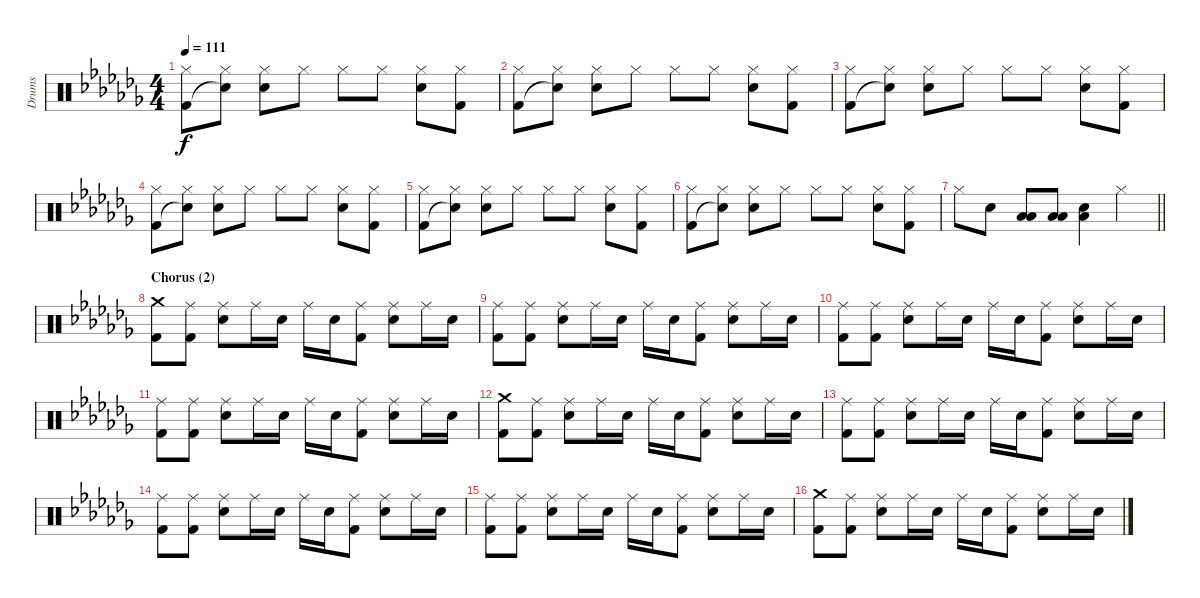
\track ("Drums" "Drums") {instrument percussion}
\staff {score}
\articulation defaults
\ts (4 4)
\tempo 111
\clef neutral
\ks abminor
("Hi-Hat (closed)" "Kick (hit) 2").8{dy f} ("Hi-Hat (closed)" "Snare (hit)"{t}).8 ("Hi-Hat (closed)" "Electric Snare (hit)").8 "Hi-Hat (closed)".8 "Hi-Hat (closed)".8 "Hi-Hat (closed)".8 ("Hi-Hat (closed)" "Electric Snare (hit)").8 ("Hi-Hat (closed)" "Kick (hit) 2").8 |
("Hi-Hat (closed)" "Kick (hit) 2").8 ("Hi-Hat (closed)" "Snare (hit)"{t}).8 ("Hi-Hat (closed)" "Electric Snare (hit)").8 "Hi-Hat (closed)".8 "Hi-Hat (closed)".8 "Hi-Hat (closed)".8 ("Hi-Hat (closed)" "Electric Snare (hit)").8 ("Hi-Hat (closed)" "Kick (hit) 2").8 |
("Hi-Hat (closed)" "Kick (hit) 2").8 ("Hi-Hat (closed)" "Snare (hit)"{t}).8 ("Hi-Hat (closed)" "Electric Snare (hit)").8 "Hi-Hat (closed)".8 "Hi-Hat (closed)".8 "Hi-Hat (closed)".8 ("Hi-Hat (closed)" "Electric Snare (hit)").8 ("Hi-Hat (closed)" "Kick (hit) 2").8 |
("Hi-Hat (closed)" "Kick (hit) 2").8 ("Hi-Hat (closed)" "Snare (hit)"{t}).8 ("Hi-Hat (closed)" "Electric Snare (hit)").8 "Hi-Hat (closed)".8 "Hi-Hat (closed)".8 "Hi-Hat (closed)".8 ("Hi-Hat (closed)" "Electric Snare (hit)").8 ("Hi-Hat (closed)" "Kick (hit) 2").8 |
("Hi-Hat (closed)" "Kick (hit) 2").8 ("Hi-Hat (closed)" "Snare (hit)"{t}).8 ("Hi-Hat (closed)" "Electric Snare (hit)").8 "Hi-Hat (closed)".8 "Hi-Hat (closed)".8 "Hi-Hat (closed)".8 ("Hi-Hat (closed)" "Electric Snare (hit)").8 ("Hi-Hat (closed)" "Kick (hit) 2").8 |
("Hi-Hat (closed)" "Kick (hit) 2").8 ("Hi-Hat (closed)" "Snare (hit)"{t}).8 ("Hi-Hat (closed)" "Electric Snare (hit)").8 "Hi-Hat (closed)".8 "Hi-Hat (closed)".8 "Hi-Hat (closed)".8 ("Hi-Hat (closed)" "Electric Snare (hit)").8 ("Hi-Hat (closed)" "Kick (hit) 2").8 |
\barLineRight lightlight "Hi-Hat (closed)".8 "Electric Snare (hit)".8
("Low Tom (hit)" "Low Floor Tom (hit)").8 ("Low Tom (hit)" "Low Floor Tom (hit)").8 ("Electric Snare (hit)" "Low Floor Tom (hit)").4 "Hi-Hat (closed)".4 |
\section ("" "Chorus (2)")
("Crash medium (hit)" "Kick (hit) 2").8 ("Ride (middle)" "Kick (hit) 2").8 ("Ride (middle)" "Electric Snare (hit)").8 "Ride (middle)".16 "Electric Snare (hit)".16 "Ride (middle)".16 "Electric Snare (hit)".16 ("Ride (middle)" "Kick (hit) 2").8 ("Ride (middle)" "Electric Snare (hit)").8 "Ride (middle)".16 "Electric Snare (hit)".16 |
("Ride (middle)" "Kick (hit) 2").8 ("Ride (middle)" "Kick (hit) 2").8 ("Ride (middle)" "Electric Snare (hit)").8 "Ride (middle)".16 "Electric Snare (hit)".16 "Ride (middle)".16 "Electric Snare (hit)".16 ("Ride (middle)" "Kick (hit) 2").8 ("Ride (middle)" "Electric Snare (hit)").8 "Ride (middle)".16 "Electric Snare (hit)".16 |
("Ride (middle)" "Kick (hit) 2").8 ("Ride (middle)" "Kick (hit) 2").8 ("Ride (middle)" "Electric Snare (hit)").8 "Ride (middle)".16 "Electric Snare (hit)".16 "Ride (middle)".16 "Electric Snare (hit)".16 ("Ride (middle)" "Kick (hit) 2").8 ("Ride (middle)" "Electric Snare (hit)").8 "Ride (middle)".16 "Electric Snare (hit)".16 |
("Ride (middle)" "Kick (hit) 2").8 ("Ride (middle)" "Kick (hit) 2").8 ("Ride (middle)" "Electric Snare (hit)").8 "Ride (middle)".16 "Electric Snare (hit)".16 "Ride (middle)".16 "Electric Snare (hit)".16 ("Ride (middle)" "Kick (hit) 2").8 ("Ride (middle)" "Electric Snare (hit)").8 "Ride (middle)".16 "Electric Snare (hit)".16 |
("Crash medium (hit)" "Kick (hit) 2").8 ("Ride (middle)" "Kick (hit) 2").8 ("Ride (middle)" "Electric Snare (hit)").8 "Ride (middle)".16 "Electric Snare (hit)".16 "Ride (middle)".16 "Electric Snare (hit)".16 ("Ride (middle)" "Kick (hit) 2").8 ("Ride (middle)" "Electric Snare (hit)").8 "Ride (middle)".16 "Electric Snare (hit)".16 |
("Ride (middle)" "Kick (hit) 2").8 ("Ride (middle)" "Kick (hit) 2").8 ("Ride (middle)" "Electric Snare (hit)").8 "Ride (middle)".16 "Electric Snare (hit)".16 "Ride (middle)".16 "Electric Snare (hit)".16 ("Ride (middle)" "Kick (hit) 2").8 ("Ride (middle)" "Electric Snare (hit)").8 "Ride (middle)".16 "Electric Snare (hit)".16 |
("Ride (middle)" "Kick (hit) 2").8 ("Ride (middle)" "Kick (hit) 2").8 ("Ride (middle)" "Electric Snare (hit)").8 "Ride (middle)".16 "Electric Snare (hit)".16 "Ride (middle)".16 "Electric Snare (hit)".16 ("Ride (middle)" "Kick (hit) 2").8 ("Ride (middle)" "Electric Snare (hit)").8 "Ride (middle)".16 "Electric Snare (hit)".16 |
("Ride (middle)" "Kick (hit) 2").8 ("Ride (middle)" "Kick (hit) 2").8 ("Ride (middle)" "Electric Snare (hit)").8 "Ride (middle)".16 "Electric Snare (hit)".16 "Ride (middle)".16 "Electric Snare (hit)".16 ("Ride (middle)" "Kick (hit) 2").8 ("Ride (middle)" "Electric Snare (hit)").8 "Ride (middle)".16 "Electric Snare (hit)".16 |
("Crash medium (hit)" "Kick (hit) 2").8 ("Ride (middle)" "Kick (hit) 2").8 ("Ride (middle)" "Electric Snare (hit)").8 "Ride (middle)".16 "Electric Snare (hit)".16 "Ride (middle)".16 "Electric Snare (hit)".16 ("Ride (middle)" "Kick (hit) 2").8 ("Ride (middle)" "Electric Snare (hit)").8 "Ride (middle)".16 "Electric Snare (hit)".16
